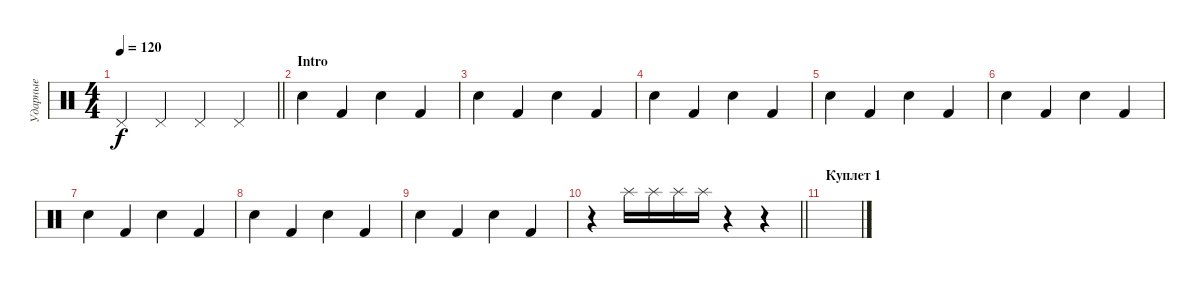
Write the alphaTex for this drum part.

\track ("Ударные" "Ударные") {instrument percussion}
\staff {score}
\articulation defaults
\ts (4 4)
\tempo 120
\clef neutral
\barLineRight lightlight
\ks c "Pedal Hi-Hat (hit)".4{dy f} "Pedal Hi-Hat (hit)".4 "Pedal Hi-Hat (hit)".4 "Pedal Hi-Hat (hit)".4
|
\section ("" "Intro")
"Electric Snare (hit)".4 "Kick (hit) 2".4 "Electric Snare (hit)".4 "Kick (hit) 2".4 |
"Electric Snare (hit)".4 "Kick (hit) 2".4 "Electric Snare (hit)".4 "Kick (hit) 2".4 |
"Electric Snare (hit)".4 "Kick (hit) 2".4 "Electric Snare (hit)".4 "Kick (hit) 2".4 |
"Electric Snare (hit)".4 "Kick (hit) 2".4 "Electric Snare (hit)".4 "Kick (hit) 2".4 |
"Electric Snare (hit)".4 "Kick (hit) 2".4 "Electric Snare (hit)".4 "Kick (hit) 2".4 |
"Electric Snare (hit)".4 "Kick (hit) 2".4 "Electric Snare (hit)".4 "Kick (hit) 2".4 |
"Electric Snare (hit)".4 "Kick (hit) 2".4 "Electric Snare (hit)".4 "Kick (hit) 2".4 |
"Electric Snare (hit)".4 "Kick (hit) 2".4 "Electric Snare (hit)".4 "Kick (hit) 2".4 |
\barLineRight lightlight
r.4 "Splash (hit)".16 "Splash (hit)".16 "Splash (hit)".16 "Splash (hit)".16 r.4 r.4 |
\section ("" "Куплет 1")
